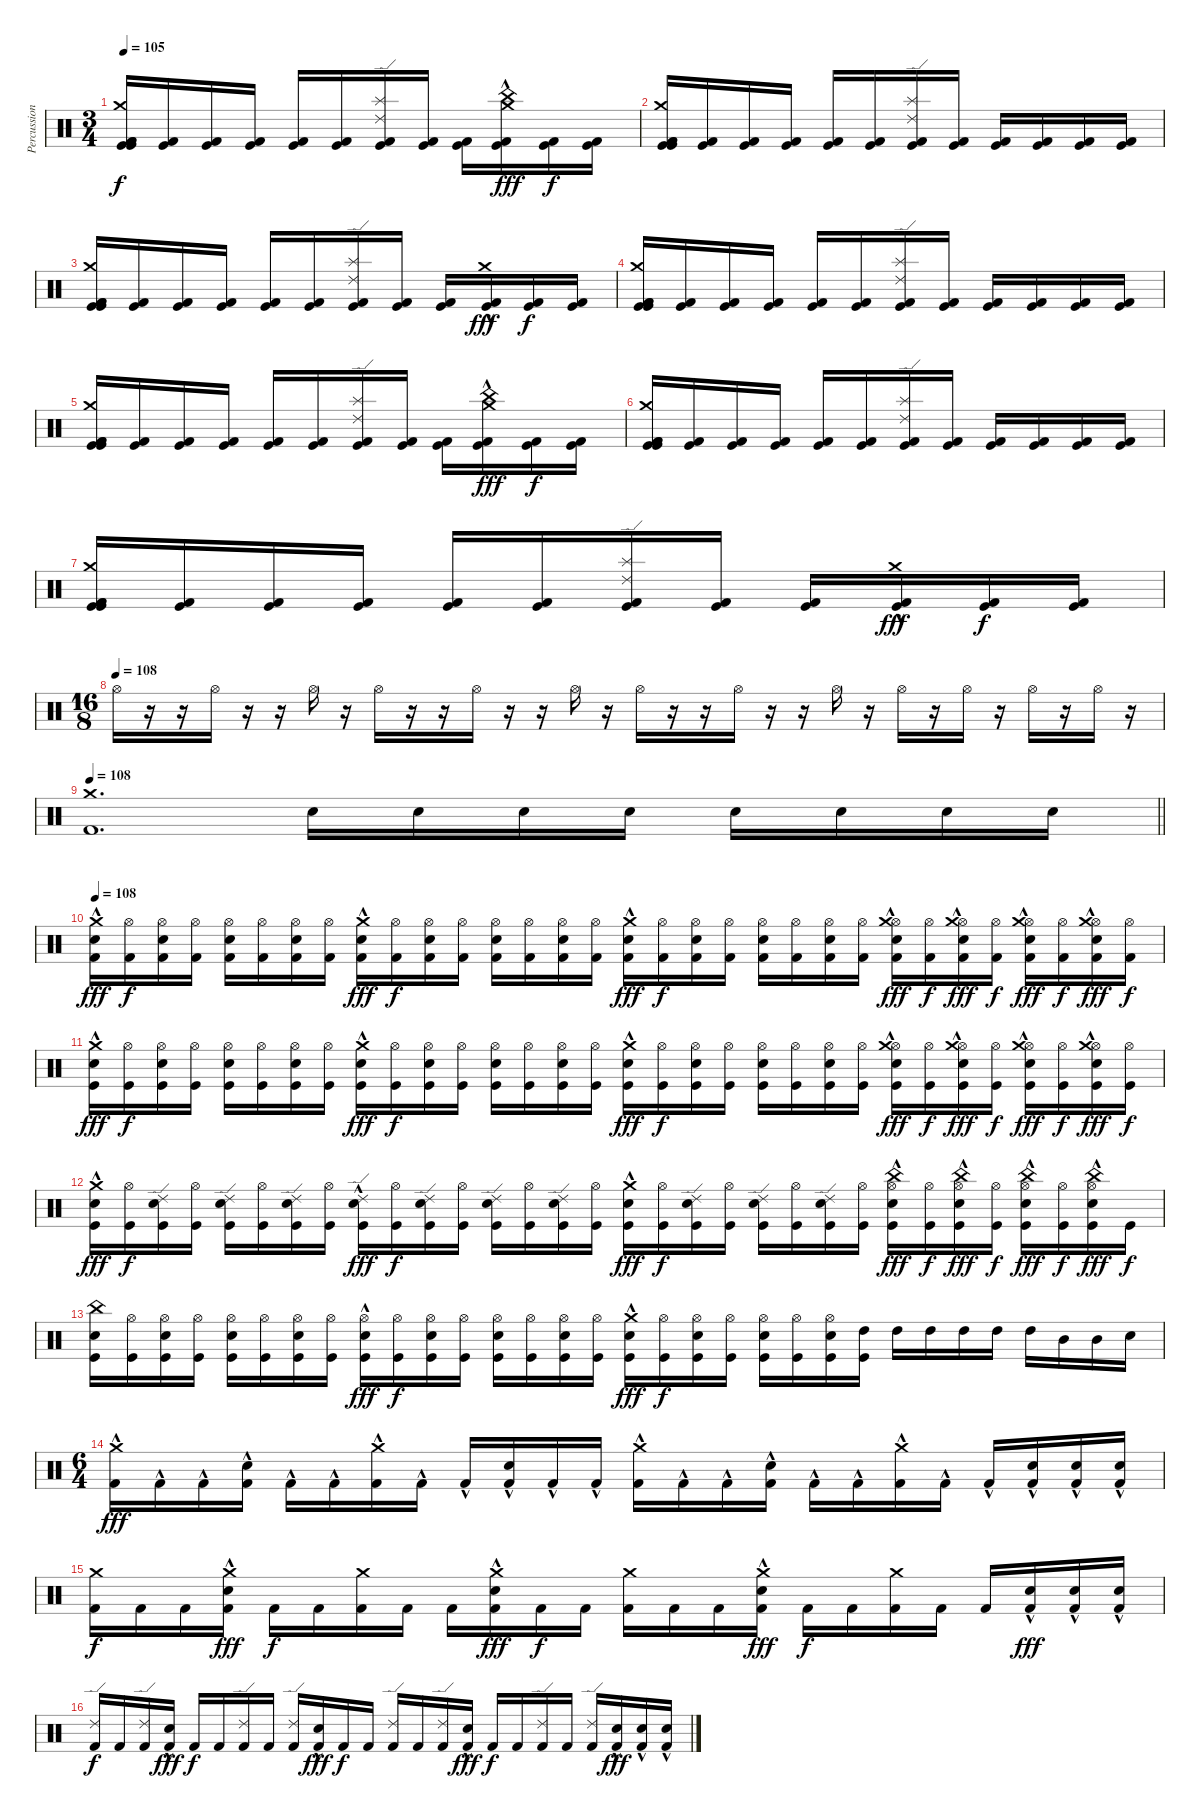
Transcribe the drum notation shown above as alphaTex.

\track ("Percussion" "Percussion") {instrument percussion}
\staff {score}
\articulation defaults
\ts (3 4)
\tempo 105
\clef neutral
\ks c
("Kick (hit)" "Crash medium (hit)" "Kick (hit)" "Kick (hit) 2" "Kick (hit) 2").16{dy f} ("Kick (hit)" "Kick (hit) 2").16 ("Kick (hit)" "Kick (hit) 2").16 ("Kick (hit)" "Kick (hit) 2").16 ("Kick (hit)" "Kick (hit) 2").16 ("Kick (hit)" "Kick (hit) 2").16 ("Kick (hit)" "Splash (hit)" "Ride (edge) 2" "Kick (hit) 2").16 ("Kick (hit)" "Kick (hit) 2").16 ("Kick (hit)" "Kick (hit) 2").16 ("Kick (hit)" "Crash medium (hit)"{hac} "China (hit)" "Kick (hit) 2").16{dy fff} ("Kick (hit)" "Kick (hit) 2").16{dy f} ("Kick (hit)" "Kick (hit) 2").16 |
("Kick (hit)" "Crash medium (hit)" "Kick (hit)" "Kick (hit) 2" "Kick (hit) 2").16 ("Kick (hit)" "Kick (hit) 2").16 ("Kick (hit)" "Kick (hit) 2").16 ("Kick (hit)" "Kick (hit) 2").16 ("Kick (hit)" "Kick (hit) 2").16 ("Kick (hit)" "Kick (hit) 2").16 ("Kick (hit)" "Splash (hit)" "Ride (edge) 2" "Kick (hit) 2").16 ("Kick (hit)" "Kick (hit) 2").16 ("Kick (hit)" "Kick (hit) 2").16 ("Kick (hit)" "Kick (hit) 2").16 ("Kick (hit)" "Kick (hit) 2").16 ("Kick (hit)" "Kick (hit) 2").16 |
("Kick (hit)" "Crash medium (hit)" "Kick (hit)" "Kick (hit) 2" "Kick (hit) 2").16 ("Kick (hit)" "Kick (hit) 2").16 ("Kick (hit)" "Kick (hit) 2").16 ("Kick (hit)" "Kick (hit) 2").16 ("Kick (hit)" "Kick (hit) 2").16 ("Kick (hit)" "Kick (hit) 2").16 ("Kick (hit)" "Splash (hit)" "Ride (edge) 2" "Kick (hit) 2").16 ("Kick (hit)" "Kick (hit) 2").16 ("Kick (hit)" "Kick (hit) 2").16 ("Kick (hit)" "Crash medium (hit)"{hac} "Kick (hit) 2").16{dy fff} ("Kick (hit)" "Kick (hit) 2").16{dy f} ("Kick (hit)" "Kick (hit) 2").16 |
("Kick (hit)" "Crash medium (hit)" "Kick (hit)" "Kick (hit) 2" "Kick (hit) 2").16 ("Kick (hit)" "Kick (hit) 2").16 ("Kick (hit)" "Kick (hit) 2").16 ("Kick (hit)" "Kick (hit) 2").16 ("Kick (hit)" "Kick (hit) 2").16 ("Kick (hit)" "Kick (hit) 2").16 ("Kick (hit)" "Splash (hit)" "Ride (edge) 2" "Kick (hit) 2").16 ("Kick (hit)" "Kick (hit) 2").16 ("Kick (hit)" "Kick (hit) 2").16 ("Kick (hit)" "Kick (hit) 2").16 ("Kick (hit)" "Kick (hit) 2").16 ("Kick (hit)" "Kick (hit) 2").16 |
("Kick (hit)" "Crash medium (hit)" "Kick (hit)" "Kick (hit) 2" "Kick (hit) 2").16 ("Kick (hit)" "Kick (hit) 2").16 ("Kick (hit)" "Kick (hit) 2").16 ("Kick (hit)" "Kick (hit) 2").16 ("Kick (hit)" "Kick (hit) 2").16 ("Kick (hit)" "Kick (hit) 2").16 ("Kick (hit)" "Splash (hit)" "Ride (edge) 2" "Kick (hit) 2").16 ("Kick (hit)" "Kick (hit) 2").16 ("Kick (hit)" "Kick (hit) 2").16 ("Kick (hit)" "Crash medium (hit)"{hac} "China (hit)" "Kick (hit) 2").16{dy fff} ("Kick (hit)" "Kick (hit) 2").16{dy f} ("Kick (hit)" "Kick (hit) 2").16 |
("Kick (hit)" "Crash medium (hit)" "Kick (hit)" "Kick (hit) 2" "Kick (hit) 2").16 ("Kick (hit)" "Kick (hit) 2").16 ("Kick (hit)" "Kick (hit) 2").16 ("Kick (hit)" "Kick (hit) 2").16 ("Kick (hit)" "Kick (hit) 2").16 ("Kick (hit)" "Kick (hit) 2").16 ("Kick (hit)" "Splash (hit)" "Ride (edge) 2" "Kick (hit) 2").16 ("Kick (hit)" "Kick (hit) 2").16 ("Kick (hit)" "Kick (hit) 2").16 ("Kick (hit)" "Kick (hit) 2").16 ("Kick (hit)" "Kick (hit) 2").16 ("Kick (hit)" "Kick (hit) 2").16 |
("Kick (hit)" "Crash medium (hit)" "Kick (hit)" "Kick (hit) 2" "Kick (hit) 2").16 ("Kick (hit)" "Kick (hit) 2").16 ("Kick (hit)" "Kick (hit) 2").16 ("Kick (hit)" "Kick (hit) 2").16 ("Kick (hit)" "Kick (hit) 2").16 ("Kick (hit)" "Kick (hit) 2").16 ("Kick (hit)" "Splash (hit)" "Ride (edge) 2" "Kick (hit) 2").16 ("Kick (hit)" "Kick (hit) 2").16 ("Kick (hit)" "Kick (hit) 2").16 ("Kick (hit)" "Crash medium (hit)"{hac} "Kick (hit) 2").16{dy fff} ("Kick (hit)" "Kick (hit) 2").16{dy f} ("Kick (hit)" "Kick (hit) 2").16 |
\ts (16 8)
\tempo (108)
"Hi-Hat (open)".16 r.16 r.16 "Hi-Hat (open)".16 r.16 r.16 "Hi-Hat (open)".16 r.16 "Hi-Hat (open)".16 r.16 r.16 "Hi-Hat (open)".16 r.16 r.16 "Hi-Hat (open)".16 r.16 "Hi-Hat (open)".16 r.16 r.16 "Hi-Hat (open)".16 r.16 r.16 "Hi-Hat (open)".16 r.16 "Hi-Hat (open)".16 r.16 "Hi-Hat (open)".16 r.16 "Hi-Hat (open)".16 r.16 "Hi-Hat (open)".16 r.16 |
\tempo 108
\barLineRight lightlight
("Crash medium (hit)" "Kick (hit) 2").1{d} "Electric Snare (hit)".16 "Electric Snare (hit)".16 "Electric Snare (hit)".16 "Electric Snare (hit)".16 "Electric Snare (hit)".16 "Electric Snare (hit)".16 "Electric Snare (hit)".16 "Electric Snare (hit)".16 |
\section ("" "")
\tempo 108
("Crash medium (hit)"{hac} "Electric Snare (hit)" "Kick (hit) 2").16{dy fff} ("Hi-Hat (open)" "Kick (hit) 2").16{dy f} ("Hi-Hat (open)" "Electric Snare (hit)" "Kick (hit) 2").16 ("Hi-Hat (open)" "Kick (hit) 2").16 ("Hi-Hat (open)" "Electric Snare (hit)" "Kick (hit) 2").16 ("Hi-Hat (open)" "Kick (hit) 2").16 ("Hi-Hat (open)" "Electric Snare (hit)" "Kick (hit) 2").16 ("Hi-Hat (open)" "Kick (hit) 2").16 ("Crash medium (hit)"{hac} "Electric Snare (hit)" "Kick (hit) 2").16{dy fff} ("Hi-Hat (open)" "Kick (hit) 2").16{dy f} ("Hi-Hat (open)" "Electric Snare (hit)" "Kick (hit) 2").16 ("Hi-Hat (open)" "Kick (hit) 2").16 ("Hi-Hat (open)" "Electric Snare (hit)" "Kick (hit) 2").16 ("Hi-Hat (open)" "Kick (hit) 2").16 ("Hi-Hat (open)" "Electric Snare (hit)" "Kick (hit) 2").16 ("Hi-Hat (open)" "Kick (hit) 2").16 ("Crash medium (hit)"{hac} "Electric Snare (hit)" "Kick (hit) 2").16{dy fff} ("Hi-Hat (open)" "Kick (hit) 2").16{dy f} ("Hi-Hat (open)" "Electric Snare (hit)" "Kick (hit) 2").16 ("Hi-Hat (open)" "Kick (hit) 2").16 ("Hi-Hat (open)" "Electric Snare (hit)" "Kick (hit) 2").16 ("Hi-Hat (open)" "Kick (hit) 2").16 ("Hi-Hat (open)" "Electric Snare (hit)" "Kick (hit) 2").16 ("Hi-Hat (open)" "Kick (hit) 2").16 ("Hi-Hat (open)" "Crash medium (hit)"{hac} "Electric Snare (hit)" "Kick (hit) 2").16{dy fff} ("Hi-Hat (open)" "Kick (hit) 2").16{dy f} ("Hi-Hat (open)" "Crash medium (hit)"{hac} "Electric Snare (hit)" "Kick (hit) 2").16{dy fff} ("Hi-Hat (open)" "Kick (hit) 2").16{dy f} ("Hi-Hat (open)" "Crash medium (hit)"{hac} "Electric Snare (hit)" "Kick (hit) 2").16{dy fff} ("Hi-Hat (open)" "Kick (hit) 2").16{dy f} ("Hi-Hat (open)" "Crash medium (hit)"{hac} "Electric Snare (hit)" "Kick (hit) 2").16{dy fff} ("Hi-Hat (open)" "Kick (hit) 2").16{dy f} |
("Crash medium (hit)"{hac} "Snare (hit) 2" "Kick (hit)").16{dy fff} ("Hi-Hat (open)" "Kick (hit)").16{dy f} ("Hi-Hat (open)" "Snare (hit) 2" "Kick (hit)").16 ("Hi-Hat (open)" "Kick (hit)").16 ("Hi-Hat (open)" "Snare (hit) 2" "Kick (hit)").16 ("Hi-Hat (open)" "Kick (hit)").16 ("Hi-Hat (open)" "Snare (hit) 2" "Kick (hit)").16 ("Hi-Hat (open)" "Kick (hit)").16 ("Crash medium (hit)"{hac} "Snare (hit) 2" "Kick (hit)").16{dy fff} ("Hi-Hat (open)" "Kick (hit)").16{dy f} ("Hi-Hat (open)" "Snare (hit) 2" "Kick (hit)").16 ("Hi-Hat (open)" "Kick (hit)").16 ("Hi-Hat (open)" "Snare (hit) 2" "Kick (hit)").16 ("Hi-Hat (open)" "Kick (hit)").16 ("Hi-Hat (open)" "Snare (hit) 2" "Kick (hit)").16 ("Hi-Hat (open)" "Kick (hit)").16 ("Crash medium (hit)"{hac} "Snare (hit) 2" "Kick (hit)").16{dy fff} ("Hi-Hat (open)" "Kick (hit)").16{dy f} ("Hi-Hat (open)" "Snare (hit) 2" "Kick (hit)").16 ("Hi-Hat (open)" "Kick (hit)").16 ("Hi-Hat (open)" "Snare (hit) 2" "Kick (hit)").16 ("Hi-Hat (open)" "Kick (hit)").16 ("Hi-Hat (open)" "Snare (hit) 2" "Kick (hit)").16 ("Hi-Hat (open)" "Kick (hit)").16 ("Hi-Hat (open)" "Crash medium (hit)"{hac} "Snare (hit) 2" "Kick (hit)").16{dy fff} ("Hi-Hat (open)" "Kick (hit)").16{dy f} ("Hi-Hat (open)" "Crash medium (hit)"{hac} "Snare (hit) 2" "Kick (hit)").16{dy fff} ("Hi-Hat (open)" "Kick (hit)").16{dy f} ("Hi-Hat (open)" "Crash medium (hit)"{hac} "Snare (hit) 2" "Kick (hit)").16{dy fff} ("Hi-Hat (open)" "Kick (hit)").16{dy f} ("Hi-Hat (open)" "Crash medium (hit)"{hac} "Snare (hit) 2" "Kick (hit)").16{dy fff} ("Hi-Hat (open)" "Kick (hit)").16{dy f} |
("Crash medium (hit)"{hac} "Snare (hit) 2" "Kick (hit)").16{dy fff} ("Hi-Hat (open)" "Kick (hit)").16{dy f} ("Ride (edge) 2" "Snare (hit) 2" "Kick (hit)").16 ("Hi-Hat (open)" "Kick (hit)").16 ("Ride (edge) 2" "Snare (hit) 2" "Kick (hit)").16 ("Hi-Hat (open)" "Kick (hit)").16 ("Ride (edge) 2" "Snare (hit) 2" "Kick (hit)").16 ("Hi-Hat (open)" "Kick (hit)").16 ("Ride (edge) 2"{hac} "Snare (hit) 2" "Kick (hit)").16{dy fff} ("Hi-Hat (open)" "Kick (hit)").16{dy f} ("Ride (edge) 2" "Snare (hit) 2" "Kick (hit)").16 ("Hi-Hat (open)" "Kick (hit)").16 ("Ride (edge) 2" "Snare (hit) 2" "Kick (hit)").16 ("Hi-Hat (open)" "Kick (hit)").16 ("Ride (edge) 2" "Snare (hit) 2" "Kick (hit)").16 ("Hi-Hat (open)" "Kick (hit)").16 ("Crash medium (hit)"{hac} "Snare (hit) 2" "Kick (hit)").16{dy fff} ("Hi-Hat (open)" "Kick (hit)").16{dy f} ("Ride (edge) 2" "Snare (hit) 2" "Kick (hit)").16 ("Hi-Hat (open)" "Kick (hit)").16 ("Ride (edge) 2" "Snare (hit) 2" "Kick (hit)").16 ("Hi-Hat (open)" "Kick (hit)").16 ("Ride (edge) 2" "Snare (hit) 2" "Kick (hit)").16 ("Hi-Hat (open)" "Kick (hit)").16 ("Hi-Hat (open)" "China (hit)"{hac} "Snare (hit) 2" "Kick (hit)").16{dy fff} ("Hi-Hat (open)" "Kick (hit)").16{dy f} ("Hi-Hat (open)" "China (hit)"{hac} "Snare (hit) 2" "Kick (hit)").16{dy fff} ("Hi-Hat (open)" "Kick (hit)").16{dy f} ("Hi-Hat (open)" "China (hit)"{hac} "Snare (hit) 2" "Kick (hit)").16{dy fff} ("Hi-Hat (open)" "Kick (hit)").16{dy f} ("Hi-Hat (open)" "China (hit)"{hac} "Snare (hit) 2" "Kick (hit)").16{dy fff} "Kick (hit)".16{dy f} |
("China (hit)" "Snare (hit) 2" "Kick (hit)").16 ("Hi-Hat (open)" "Kick (hit)").16 ("Hi-Hat (open)" "Snare (hit) 2" "Kick (hit)").16 ("Hi-Hat (open)" "Kick (hit)").16 ("Hi-Hat (open)" "Snare (hit) 2" "Kick (hit)").16 ("Hi-Hat (open)" "Kick (hit)").16 ("Hi-Hat (open)" "Snare (hit) 2" "Kick (hit)").16 ("Hi-Hat (open)" "Kick (hit)").16 ("Hi-Hat (open)"{hac} "Snare (hit) 2" "Kick (hit)").16{dy fff} ("Hi-Hat (open)" "Kick (hit)").16{dy f} ("Hi-Hat (open)" "Snare (hit) 2" "Kick (hit)").16 ("Hi-Hat (open)" "Kick (hit)").16 ("Hi-Hat (open)" "Snare (hit) 2" "Kick (hit)").16 ("Hi-Hat (open)" "Kick (hit)").16 ("Hi-Hat (open)" "Snare (hit) 2" "Kick (hit)").16 ("Hi-Hat (open)" "Kick (hit)").16 ("Crash medium (hit)"{hac} "Snare (hit) 2" "Kick (hit)").16{dy fff} ("Hi-Hat (open)" "Kick (hit)").16{dy f} ("Hi-Hat (open)" "Snare (hit) 2" "Kick (hit)").16 ("Hi-Hat (open)" "Kick (hit)").16 ("Hi-Hat (open)" "Snare (hit) 2" "Kick (hit)").16 ("Hi-Hat (open)" "Kick (hit)").16 ("Hi-Hat (open)" "Snare (hit) 2" "Kick (hit)").16 ("High Tom (hit)" "Kick (hit)").16 "High Tom (hit)".16 "High Tom (hit)".16 "High Tom (hit)".16 "High Tom (hit)".16 "High Tom (hit)".16 "Mid Tom (hit)".16 "Mid Tom (hit)".16 "Electric Snare (hit)".16 |
\ts (6 4)
("Crash medium (hit)" "Kick (hit) 2"{hac}).16{dy fff} "Kick (hit) 2"{hac}.16 "Kick (hit) 2"{hac}.16 ("Electric Snare (hit)"{hac} "Kick (hit) 2"{hac}).16 "Kick (hit) 2"{hac}.16 "Kick (hit) 2"{hac}.16 ("Crash medium (hit)" "Kick (hit) 2"{hac}).16 "Kick (hit) 2"{hac}.16 "Kick (hit) 2"{hac}.16 ("Electric Snare (hit)"{hac} "Kick (hit) 2"{hac}).16 "Kick (hit) 2"{hac}.16 "Kick (hit) 2"{hac}.16 ("Crash medium (hit)" "Kick (hit) 2"{hac}).16 "Kick (hit) 2"{hac}.16 "Kick (hit) 2"{hac}.16 ("Electric Snare (hit)"{hac} "Kick (hit) 2"{hac}).16 "Kick (hit) 2"{hac}.16 "Kick (hit) 2"{hac}.16 ("Crash medium (hit)" "Kick (hit) 2"{hac}).16 "Kick (hit) 2"{hac}.16 "Kick (hit) 2"{hac}.16 ("Snare (hit) 2"{hac} "Kick (hit) 2"{hac}).16 ("Snare (hit) 2"{hac} "Kick (hit) 2"{hac}).16 ("Snare (hit) 2"{hac} "Kick (hit) 2"{hac}).16 |
("Crash medium (hit)" "Kick (hit) 2").16{dy f} "Kick (hit) 2".16 "Kick (hit) 2".16 ("Crash medium (hit)" "Electric Snare (hit)"{hac} "Kick (hit) 2").16{dy fff} "Kick (hit) 2".16{dy f} "Kick (hit) 2".16 ("Crash medium (hit)" "Kick (hit) 2").16 "Kick (hit) 2".16 "Kick (hit) 2".16 ("Crash medium (hit)" "Electric Snare (hit)"{hac} "Kick (hit) 2").16{dy fff} "Kick (hit) 2".16{dy f} "Kick (hit) 2".16 ("Crash medium (hit)" "Kick (hit) 2").16 "Kick (hit) 2".16 "Kick (hit) 2".16 ("Crash medium (hit)" "Electric Snare (hit)"{hac} "Kick (hit) 2").16{dy fff} "Kick (hit) 2".16{dy f} "Kick (hit) 2".16 ("Crash medium (hit)" "Kick (hit) 2").16 "Kick (hit) 2".16 "Kick (hit) 2".16 ("Snare (hit) 2"{hac} "Kick (hit) 2").16{dy fff} ("Snare (hit) 2"{hac} "Kick (hit) 2").16 ("Snare (hit) 2"{hac} "Kick (hit) 2").16 |
("Ride (edge) 2" "Kick (hit) 2").16{dy f} "Kick (hit) 2".16 ("Ride (edge) 2" "Kick (hit) 2").16 ("Electric Snare (hit)"{hac} "Kick (hit) 2").16{dy fff} "Kick (hit) 2".16{dy f} "Kick (hit) 2".16 ("Ride (edge) 2" "Kick (hit) 2").16 "Kick (hit) 2".16 ("Ride (edge) 2" "Kick (hit) 2").16 ("Electric Snare (hit)"{hac} "Kick (hit) 2").16{dy fff} "Kick (hit) 2".16{dy f} "Kick (hit) 2".16 ("Ride (edge) 2" "Kick (hit) 2").16 "Kick (hit) 2".16 ("Ride (edge) 2" "Kick (hit) 2").16 ("Electric Snare (hit)"{hac} "Kick (hit) 2").16{dy fff} "Kick (hit) 2".16{dy f} "Kick (hit) 2".16 ("Ride (edge) 2" "Kick (hit) 2").16 "Kick (hit) 2".16 ("Ride (edge) 2" "Kick (hit) 2").16 ("Snare (hit) 2"{hac} "Kick (hit) 2").16{dy fff} ("Snare (hit) 2"{hac} "Kick (hit) 2").16 ("Snare (hit) 2"{hac} "Kick (hit) 2").16
